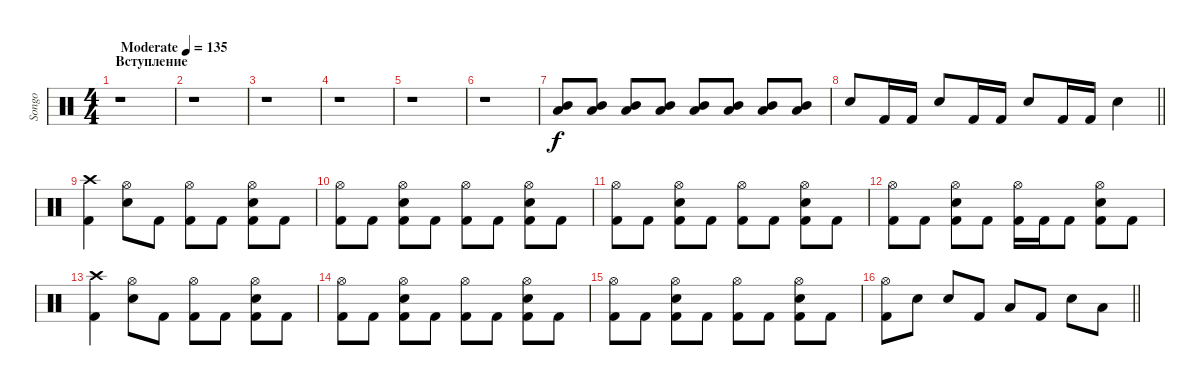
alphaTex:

\track ("Songo" "Songo") {instrument percussion}
\staff {score}
\articulation defaults
\ts (4 4)
\section ("" "Вступление")
\tempo (135 "Moderate")
\clef neutral
\ks c
r.1{dy f} |
r.1 |
r.1 |
r.1 |
r.1 |
r.1 |
("Low Tom (hit)" "Mid Tom (hit)").8 ("Low Tom (hit)" "Mid Tom (hit)").8 ("Low Tom (hit)" "Mid Tom (hit)").8 ("Low Tom (hit)" "Mid Tom (hit)").8 ("Low Tom (hit)" "Mid Tom (hit)").8 ("Low Tom (hit)" "Mid Tom (hit)").8 ("Low Tom (hit)" "Mid Tom (hit)").8 ("Low Tom (hit)" "Mid Tom (hit)").8 |
\barLineRight lightlight "Snare (hit) 2".8 "Kick (hit) 2".16 "Kick (hit) 2".16 "Snare (hit) 2".8 "Kick (hit) 2".16 "Kick (hit) 2".16 "Snare (hit) 2".8 "Kick (hit) 2".16 "Kick (hit) 2".16 "Snare (hit) 2".4
|
("Crash high (hit)" "Kick (hit) 2").4 ("Hi-Hat (open)" "Snare (hit) 2").8 "Kick (hit) 2".8 ("Hi-Hat (open)" "Kick (hit) 2").8 "Kick (hit) 2".8 ("Hi-Hat (open)" "Snare (hit) 2" "Kick (hit) 2").8 "Kick (hit) 2".8 |
("Hi-Hat (open)" "Kick (hit) 2").8 "Kick (hit) 2".8 ("Hi-Hat (open)" "Snare (hit) 2" "Kick (hit) 2").8 "Kick (hit) 2".8 ("Hi-Hat (open)" "Kick (hit) 2").8 "Kick (hit) 2".8 ("Hi-Hat (open)" "Snare (hit) 2" "Kick (hit) 2").8 "Kick (hit) 2".8 |
("Hi-Hat (open)" "Kick (hit) 2").8 "Kick (hit) 2".8 ("Hi-Hat (open)" "Snare (hit) 2" "Kick (hit) 2").8 "Kick (hit) 2".8 ("Hi-Hat (open)" "Kick (hit) 2").8 "Kick (hit) 2".8 ("Hi-Hat (open)" "Snare (hit) 2" "Kick (hit) 2").8 "Kick (hit) 2".8 |
("Hi-Hat (open)" "Kick (hit) 2").8 "Kick (hit) 2".8 ("Hi-Hat (open)" "Snare (hit) 2" "Kick (hit) 2").8 "Kick (hit) 2".8 ("Hi-Hat (open)" "Kick (hit) 2").16 "Kick (hit) 2".16 "Kick (hit) 2".8 ("Hi-Hat (open)" "Snare (hit) 2" "Kick (hit) 2").8 "Kick (hit) 2".8 |
("Crash high (hit)" "Kick (hit) 2").4 ("Hi-Hat (open)" "Snare (hit) 2").8 "Kick (hit) 2".8 ("Hi-Hat (open)" "Kick (hit) 2").8 "Kick (hit) 2".8 ("Hi-Hat (open)" "Snare (hit) 2" "Kick (hit) 2").8 "Kick (hit) 2".8 |
("Hi-Hat (open)" "Kick (hit) 2").8 "Kick (hit) 2".8 ("Hi-Hat (open)" "Snare (hit) 2" "Kick (hit) 2").8 "Kick (hit) 2".8 ("Hi-Hat (open)" "Kick (hit) 2").8 "Kick (hit) 2".8 ("Hi-Hat (open)" "Snare (hit) 2" "Kick (hit) 2").8 "Kick (hit) 2".8 |
("Hi-Hat (open)" "Kick (hit) 2").8 "Kick (hit) 2".8 ("Hi-Hat (open)" "Snare (hit) 2" "Kick (hit) 2").8 "Kick (hit) 2".8 ("Hi-Hat (open)" "Kick (hit) 2").8 "Kick (hit) 2".8 ("Hi-Hat (open)" "Snare (hit) 2" "Kick (hit) 2").8 "Kick (hit) 2".8 |
\barLineRight lightlight
("Hi-Hat (open)" "Kick (hit) 2").8 "Snare (hit) 2".8 "Snare (hit) 2".8 "Kick (hit) 2".8 "Low Tom (hit)".8 "Kick (hit) 2".8 "Snare (hit) 2".8 "Low Tom (hit)".8
